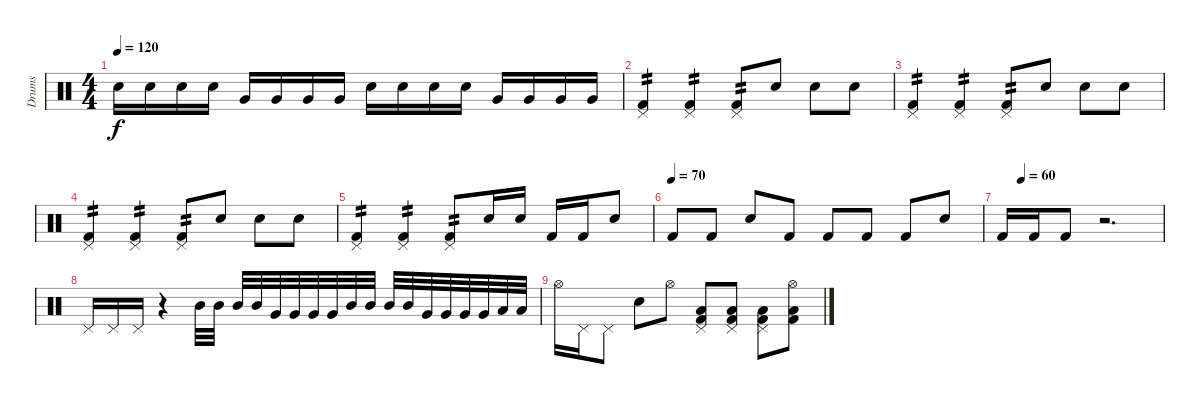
\track ("Drums" "Drums") {instrument percussion}
\staff
\articulation defaults
\ts (4 4)
\tempo 120
\clef neutral
\ks c "Electric Snare (hit)".16{dy f} "Electric Snare (hit)".16 "Electric Snare (hit)".16 "Electric Snare (hit)".16 "Very Low Tom (hit)".16 "Very Low Tom (hit)".16 "Very Low Tom (hit)".16 "Very Low Tom (hit)".16 "Electric Snare (hit)".16 "Electric Snare (hit)".16 "Electric Snare (hit)".16 "Electric Snare (hit)".16 "Very Low Tom (hit)".16 "Very Low Tom (hit)".16 "Very Low Tom (hit)".16 "Very Low Tom (hit)".16
|
("Pedal Hi-Hat (hit)" "Kick (hit) 2").4{tp 2} ("Pedal Hi-Hat (hit)" "Kick (hit) 2").4{tp 2} ("Pedal Hi-Hat (hit)" "Kick (hit) 2").8{tp 2} "Electric Snare (hit)".8 "Electric Snare (hit)".8 "Electric Snare (hit)".8 |
("Pedal Hi-Hat (hit)" "Kick (hit) 2").4{tp 2} ("Pedal Hi-Hat (hit)" "Kick (hit) 2").4{tp 2} ("Pedal Hi-Hat (hit)" "Kick (hit) 2").8{tp 2} "Electric Snare (hit)".8 "Electric Snare (hit)".8 "Electric Snare (hit)".8 |
("Pedal Hi-Hat (hit)" "Kick (hit) 2").4{tp 2} ("Pedal Hi-Hat (hit)" "Kick (hit) 2").4{tp 2} ("Pedal Hi-Hat (hit)" "Kick (hit) 2").8{tp 2} "Electric Snare (hit)".8 "Electric Snare (hit)".8 "Electric Snare (hit)".8 |
("Pedal Hi-Hat (hit)" "Kick (hit) 2").4{tp 2} ("Pedal Hi-Hat (hit)" "Kick (hit) 2").4{tp 2} ("Pedal Hi-Hat (hit)" "Kick (hit) 2").8{tp 2} "Electric Snare (hit)".16 "Electric Snare (hit)".16 "Kick (hit) 2".16 "Kick (hit) 2".16 "Electric Snare (hit)".8 |
\tempo (70)
"Kick (hit) 2".8 "Kick (hit) 2".8 "Electric Snare (hit)".8 "Kick (hit) 2".8 "Kick (hit) 2".8 "Kick (hit) 2".8 "Kick (hit) 2".8 "Electric Snare (hit)".8 |
\tempo (60 0.125)
"Kick (hit) 2".16 "Kick (hit) 2".16 "Kick (hit) 2".8 r.2{d} |
"Pedal Hi-Hat (hit)".16 "Pedal Hi-Hat (hit)".16 "Pedal Hi-Hat (hit)".16 r.4 "Mid Tom (hit)".32 "Mid Tom (hit)".32 "Mid Tom (hit)".32 "Mid Tom (hit)".32 "Very Low Tom (hit)".32 "Very Low Tom (hit)".32 "Very Low Tom (hit)".32 "Very Low Tom (hit)".32 "Mid Tom (hit)".32 "Mid Tom (hit)".32 "Mid Tom (hit)".32 "Mid Tom (hit)".32 "Very Low Tom (hit)".32 "Very Low Tom (hit)".32 "Very Low Tom (hit)".32 "Very Low Tom (hit)".32 "Low Floor Tom (hit)".32 "Low Floor Tom (hit)".32 |
"Hi-Hat (open)".16 "Pedal Hi-Hat (hit)".16 "Pedal Hi-Hat (hit)".8 "Electric Snare (hit)".8 "Hi-Hat (open)".8 ("Pedal Hi-Hat (hit)" "Low Floor Tom (hit)" "Kick (hit) 2").8 ("Pedal Hi-Hat (hit)" "Low Floor Tom (hit)" "Kick (hit) 2").8 ("Pedal Hi-Hat (hit)" "Low Floor Tom (hit)" "Kick (hit) 2").8 ("Hi-Hat (open)" "Low Floor Tom (hit)" "Kick (hit) 2").8
